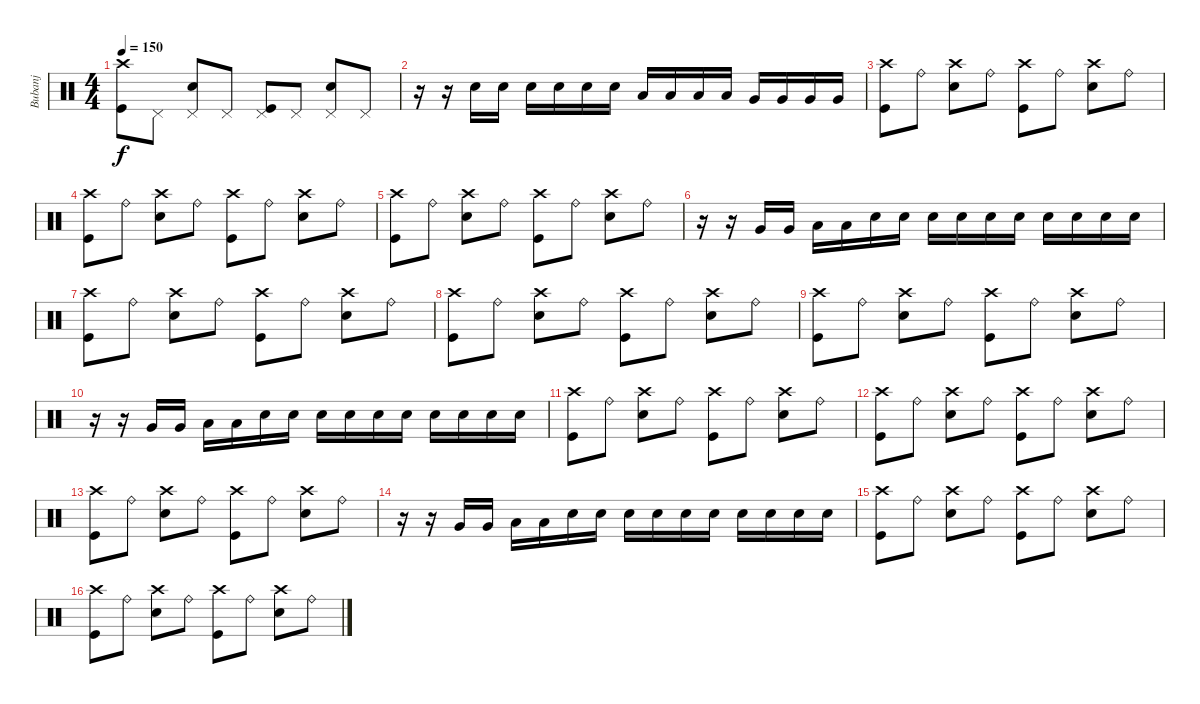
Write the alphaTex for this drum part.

\track ("Bubanj" "Bubanj") {instrument percussion}
\staff {score}
\articulation defaults
\ts (4 4)
\tempo 150
\clef neutral
\ks c
("Crash high (hit)" "Kick (hit)").8{dy f} "Pedal Hi-Hat (hit)".8 ("Pedal Hi-Hat (hit)" "Electric Snare (hit)").8 "Pedal Hi-Hat (hit)".8 ("Pedal Hi-Hat (hit)" "Kick (hit)").8 "Pedal Hi-Hat (hit)".8 ("Pedal Hi-Hat (hit)" "Electric Snare (hit)").8 "Pedal Hi-Hat (hit)".8 |
r.16 r.16 "Electric Snare (hit)".16 "Electric Snare (hit)".16 "Electric Snare (hit)".16 "Electric Snare (hit)".16 "Electric Snare (hit)".16 "Electric Snare (hit)".16 "Low Tom (hit)".16 "Low Tom (hit)".16 "Low Tom (hit)".16 "Low Tom (hit)".16 "Very Low Tom (hit)".16 "Very Low Tom (hit)".16 "Very Low Tom (hit)".16 "Very Low Tom (hit)".16 |
("Crash high (hit)" "Kick (hit)").8 "Ride (bell)".8 ("Crash high (hit)" "Electric Snare (hit)").8 "Ride (bell)".8 ("Crash high (hit)" "Kick (hit)").8 "Ride (bell)".8 ("Crash high (hit)" "Electric Snare (hit)").8 "Ride (bell)".8 |
("Crash high (hit)" "Kick (hit)").8 "Ride (bell)".8 ("Crash high (hit)" "Electric Snare (hit)").8 "Ride (bell)".8 ("Crash high (hit)" "Kick (hit)").8 "Ride (bell)".8 ("Crash high (hit)" "Electric Snare (hit)").8 "Ride (bell)".8 |
("Crash high (hit)" "Kick (hit)").8 "Ride (bell)".8 ("Crash high (hit)" "Electric Snare (hit)").8 "Ride (bell)".8 ("Crash high (hit)" "Kick (hit)").8 "Ride (bell)".8 ("Crash high (hit)" "Electric Snare (hit)").8 "Ride (bell)".8 |
r.16 r.16 "Very Low Tom (hit)".16 "Very Low Tom (hit)".16 "Low Tom (hit)".16 "Low Tom (hit)".16 "Electric Snare (hit)".16 "Electric Snare (hit)".16 "Electric Snare (hit)".16 "Electric Snare (hit)".16 "Electric Snare (hit)".16 "Electric Snare (hit)".16 "Electric Snare (hit)".16 "Electric Snare (hit)".16 "Electric Snare (hit)".16 "Electric Snare (hit)".16 |
("Crash high (hit)" "Kick (hit)").8 "Ride (bell)".8 ("Crash high (hit)" "Electric Snare (hit)").8 "Ride (bell)".8 ("Crash high (hit)" "Kick (hit)").8 "Ride (bell)".8 ("Crash high (hit)" "Electric Snare (hit)").8 "Ride (bell)".8 |
("Crash high (hit)" "Kick (hit)").8 "Ride (bell)".8 ("Crash high (hit)" "Electric Snare (hit)").8 "Ride (bell)".8 ("Crash high (hit)" "Kick (hit)").8 "Ride (bell)".8 ("Crash high (hit)" "Electric Snare (hit)").8 "Ride (bell)".8 |
("Crash high (hit)" "Kick (hit)").8 "Ride (bell)".8 ("Crash high (hit)" "Electric Snare (hit)").8 "Ride (bell)".8 ("Crash high (hit)" "Kick (hit)").8 "Ride (bell)".8 ("Crash high (hit)" "Electric Snare (hit)").8 "Ride (bell)".8 |
r.16 r.16 "Very Low Tom (hit)".16 "Very Low Tom (hit)".16 "Low Tom (hit)".16 "Low Tom (hit)".16 "Electric Snare (hit)".16 "Electric Snare (hit)".16 "Electric Snare (hit)".16 "Electric Snare (hit)".16 "Electric Snare (hit)".16 "Electric Snare (hit)".16 "Electric Snare (hit)".16 "Electric Snare (hit)".16 "Electric Snare (hit)".16 "Electric Snare (hit)".16 |
("Crash high (hit)" "Kick (hit)").8 "Ride (bell)".8 ("Crash high (hit)" "Electric Snare (hit)").8 "Ride (bell)".8 ("Crash high (hit)" "Kick (hit)").8 "Ride (bell)".8 ("Crash high (hit)" "Electric Snare (hit)").8 "Ride (bell)".8 |
("Crash high (hit)" "Kick (hit)").8 "Ride (bell)".8 ("Crash high (hit)" "Electric Snare (hit)").8 "Ride (bell)".8 ("Crash high (hit)" "Kick (hit)").8 "Ride (bell)".8 ("Crash high (hit)" "Electric Snare (hit)").8 "Ride (bell)".8 |
("Crash high (hit)" "Kick (hit)").8 "Ride (bell)".8 ("Crash high (hit)" "Electric Snare (hit)").8 "Ride (bell)".8 ("Crash high (hit)" "Kick (hit)").8 "Ride (bell)".8 ("Crash high (hit)" "Electric Snare (hit)").8 "Ride (bell)".8 |
r.16 r.16 "Very Low Tom (hit)".16 "Very Low Tom (hit)".16 "Low Tom (hit)".16 "Low Tom (hit)".16 "Electric Snare (hit)".16 "Electric Snare (hit)".16 "Electric Snare (hit)".16 "Electric Snare (hit)".16 "Electric Snare (hit)".16 "Electric Snare (hit)".16 "Electric Snare (hit)".16 "Electric Snare (hit)".16 "Electric Snare (hit)".16 "Electric Snare (hit)".16 |
("Crash high (hit)" "Kick (hit)").8 "Ride (bell)".8 ("Crash high (hit)" "Electric Snare (hit)").8 "Ride (bell)".8 ("Crash high (hit)" "Kick (hit)").8 "Ride (bell)".8 ("Crash high (hit)" "Electric Snare (hit)").8 "Ride (bell)".8 |
("Crash high (hit)" "Kick (hit)").8 "Ride (bell)".8 ("Crash high (hit)" "Electric Snare (hit)").8 "Ride (bell)".8 ("Crash high (hit)" "Kick (hit)").8 "Ride (bell)".8 ("Crash high (hit)" "Electric Snare (hit)").8 "Ride (bell)".8
